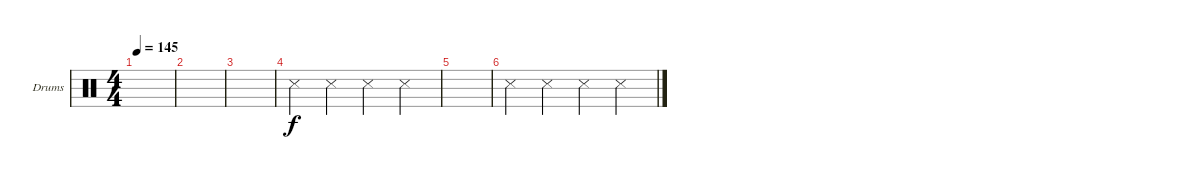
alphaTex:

\defaultSystemsLayout 4
\bracketExtendMode groupsimilarinstruments
\firstSystemTrackNameOrientation horizontal
\otherSystemsTrackNameOrientation horizontal
\track ("Helders" "Drums") {instrument percussion}
\staff {score}
\articulation defaults
\ts (4 4)
\tempo 145
\clef neutral
\ks c
|
|
|
"Snare (side stick) 3".4 "Snare (side stick) 3".4 "Snare (side stick) 3".4 "Snare (side stick) 3".4 |
|
"Snare (side stick) 3".4 "Snare (side stick) 3".4 "Snare (side stick) 3".4 "Snare (side stick) 3".4
